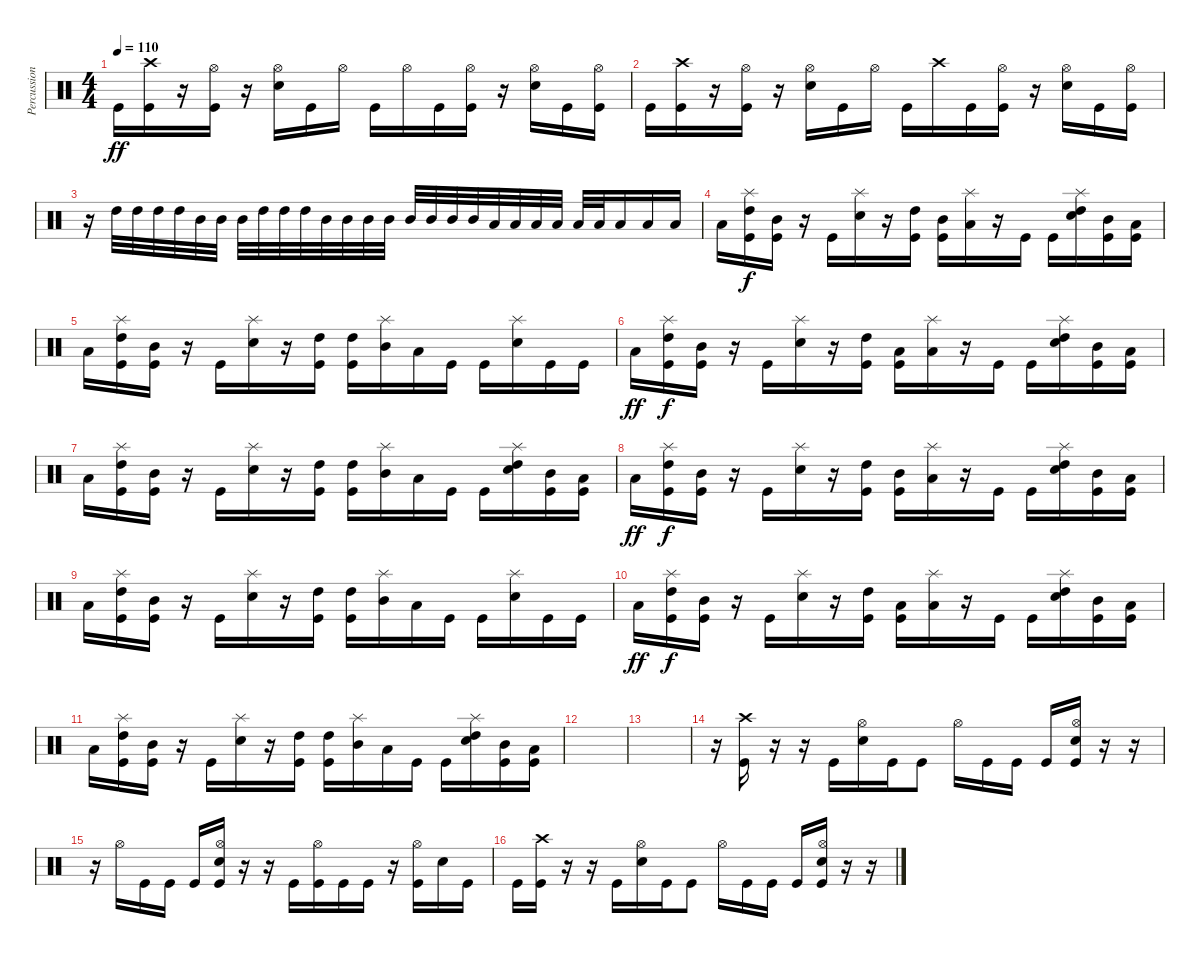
\track ("Percussion" "Percussion") {instrument percussion}
\staff {score}
\articulation defaults
\ts (4 4)
\tempo 110
\clef neutral
\ks c "Kick (hit)".16{dy ff}
("Crash high (hit)" "Kick (hit)").16 r.16 ("Hi-Hat (open)" "Kick (hit)").16 r.16 ("Hi-Hat (open)" "Electric Snare (hit)").16 "Kick (hit)".16 "Hi-Hat (open)".16 "Kick (hit)".16 "Hi-Hat (open)".16 "Kick (hit)".16 ("Hi-Hat (open)" "Kick (hit)").16 r.16 ("Hi-Hat (open)" "Electric Snare (hit)").16 "Kick (hit)".16 ("Hi-Hat (open)" "Kick (hit)").16 |
"Kick (hit)".16 ("Crash high (hit)" "Kick (hit)").16 r.16 ("Hi-Hat (open)" "Kick (hit)").16 r.16 ("Hi-Hat (open)" "Electric Snare (hit)").16 "Kick (hit)".16 "Hi-Hat (open)".16 "Kick (hit)".16 "Crash high (hit)".16 "Kick (hit)".16 ("Hi-Hat (open)" "Kick (hit)").16 r.16 ("Hi-Hat (open)" "Electric Snare (hit)").16 "Kick (hit)".16 ("Hi-Hat (open)" "Kick (hit)").16 |
r.16 "High Tom (hit)".32 "High Tom (hit)".32 "High Tom (hit)".32 "High Tom (hit)".32 "Mid Tom (hit)".32 "Mid Tom (hit)".32 "Mid Tom (hit)".32 "High Tom (hit)".32 "High Tom (hit)".32 "High Tom (hit)".32 "Mid Tom (hit)".32 "Mid Tom (hit)".32 "Mid Tom (hit)".32 "Mid Tom (hit)".32 "Mid Tom (hit)".32 "Mid Tom (hit)".32 "Mid Tom (hit)".32 "Mid Tom (hit)".32 "Low Tom (hit)".32 "Low Tom (hit)".32 "Low Tom (hit)".32 "Low Tom (hit)".32 "Low Tom (hit)".32 "Low Tom (hit)".32 "Low Floor Tom (hit)".16 "Low Floor Tom (hit)".16 "Low Floor Tom (hit)".16 |
"Low Floor Tom (hit)".16 ("Splash (hit)" "High Tom (hit)" "Kick (hit)").16{dy f} ("Mid Tom (hit)" "Kick (hit)").16 r.16 "Kick (hit)".16 ("Splash (hit)" "Electric Snare (hit)").16 r.16 ("High Tom (hit)" "Kick (hit)").16 ("Mid Tom (hit)" "Kick (hit)").16 ("Splash (hit)" "Low Tom (hit)").16 r.16 "Kick (hit)".16 "Kick (hit)".16 ("Splash (hit)" "High Tom (hit)" "Electric Snare (hit)").16 ("Mid Tom (hit)" "Kick (hit)").16 ("Low Tom (hit)" "Kick (hit)").16 |
"Low Floor Tom (hit)".16 ("Splash (hit)" "High Tom (hit)" "Kick (hit)").16 ("Mid Tom (hit)" "Kick (hit)").16 r.16 "Kick (hit)".16 ("Splash (hit)" "Electric Snare (hit)").16 r.16 ("High Tom (hit)" "Kick (hit)").16 ("High Tom (hit)" "Kick (hit)").16 ("Splash (hit)" "Mid Tom (hit)").16 "Low Floor Tom (hit)".16 "Kick (hit)".16 "Kick (hit)".16 ("Splash (hit)" "Electric Snare (hit)").16 "Kick (hit)".16 "Kick (hit)".16 |
"Low Floor Tom (hit)".16{dy ff} ("Splash (hit)" "High Tom (hit)" "Kick (hit)").16{dy f} ("Mid Tom (hit)" "Kick (hit)").16 r.16 "Kick (hit)".16 ("Splash (hit)" "Electric Snare (hit)").16 r.16 ("High Tom (hit)" "Kick (hit)").16 ("Low Tom (hit)" "Kick (hit)").16 ("Splash (hit)" "Low Floor Tom (hit)").16 r.16 "Kick (hit)".16 "Kick (hit)".16 ("Splash (hit)" "High Tom (hit)" "Electric Snare (hit)").16 ("Mid Tom (hit)" "Kick (hit)").16 ("Low Tom (hit)" "Kick (hit)").16 |
"Low Floor Tom (hit)".16 ("Splash (hit)" "High Tom (hit)" "Kick (hit)").16 ("Mid Tom (hit)" "Kick (hit)").16 r.16 "Kick (hit)".16 ("Splash (hit)" "Electric Snare (hit)").16 r.16 ("High Tom (hit)" "Kick (hit)").16 ("High Tom (hit)" "Kick (hit)").16 ("Splash (hit)" "Mid Tom (hit)").16 "Low Floor Tom (hit)".16 "Kick (hit)".16 "Kick (hit)".16 ("Splash (hit)" "High Tom (hit)" "Electric Snare (hit)").16 ("Mid Tom (hit)" "Kick (hit)").16 ("Low Tom (hit)" "Kick (hit)").16 |
"Low Floor Tom (hit)".16{dy ff} ("Splash (hit)" "High Tom (hit)" "Kick (hit)").16{dy f} ("Mid Tom (hit)" "Kick (hit)").16 r.16 "Kick (hit)".16 ("Splash (hit)" "Electric Snare (hit)").16 r.16 ("High Tom (hit)" "Kick (hit)").16 ("Mid Tom (hit)" "Kick (hit)").16 ("Splash (hit)" "Low Tom (hit)").16 r.16 "Kick (hit)".16 "Kick (hit)".16 ("Splash (hit)" "High Tom (hit)" "Electric Snare (hit)").16 ("Mid Tom (hit)" "Kick (hit)").16 ("Low Tom (hit)" "Kick (hit)").16 |
"Low Floor Tom (hit)".16 ("Splash (hit)" "High Tom (hit)" "Kick (hit)").16 ("Mid Tom (hit)" "Kick (hit)").16 r.16 "Kick (hit)".16 ("Splash (hit)" "Electric Snare (hit)").16 r.16 ("High Tom (hit)" "Kick (hit)").16 ("High Tom (hit)" "Kick (hit)").16 ("Splash (hit)" "Mid Tom (hit)").16 "Low Floor Tom (hit)".16 "Kick (hit)".16 "Kick (hit)".16 ("Splash (hit)" "Electric Snare (hit)").16 "Kick (hit)".16 "Kick (hit)".16 |
"Low Floor Tom (hit)".16{dy ff} ("Splash (hit)" "High Tom (hit)" "Kick (hit)").16{dy f} ("Mid Tom (hit)" "Kick (hit)").16 r.16 "Kick (hit)".16 ("Splash (hit)" "Electric Snare (hit)").16 r.16 ("High Tom (hit)" "Kick (hit)").16 ("Low Tom (hit)" "Kick (hit)").16 ("Splash (hit)" "Low Floor Tom (hit)").16 r.16 "Kick (hit)".16 "Kick (hit)".16 ("Splash (hit)" "High Tom (hit)" "Electric Snare (hit)").16 ("Mid Tom (hit)" "Kick (hit)").16 ("Low Tom (hit)" "Kick (hit)").16 |
"Low Floor Tom (hit)".16 ("Splash (hit)" "High Tom (hit)" "Kick (hit)").16 ("Mid Tom (hit)" "Kick (hit)").16 r.16 "Kick (hit)".16 ("Splash (hit)" "Electric Snare (hit)").16 r.16 ("High Tom (hit)" "Kick (hit)").16 ("High Tom (hit)" "Kick (hit)").16 ("Splash (hit)" "Mid Tom (hit)").16 "Low Floor Tom (hit)".16 "Kick (hit)".16 "Kick (hit)".16 ("Splash (hit)" "High Tom (hit)" "Electric Snare (hit)").16 ("Mid Tom (hit)" "Kick (hit)").16 ("Low Tom (hit)" "Kick (hit)").16 |
|
|
r.16 ("Crash high (hit)" "Kick (hit)").16 r.16 r.16 "Kick (hit)".16 ("Hi-Hat (open)" "Electric Snare (hit)").16 "Kick (hit)".16 "Kick (hit)".8 "Hi-Hat (open)".16 "Kick (hit)".16 "Kick (hit)".16 "Kick (hit)".16 ("Hi-Hat (open)" "Electric Snare (hit)" "Kick (hit)").16 r.16 r.16 |
r.16 "Hi-Hat (open)".16 "Kick (hit)".16 "Kick (hit)".16 "Kick (hit)".16 ("Hi-Hat (open)" "Electric Snare (hit)" "Kick (hit)").16 r.16 r.16 "Kick (hit)".16 ("Hi-Hat (open)" "Kick (hit)").16 "Kick (hit)".16 "Kick (hit)".16 r.16 ("Hi-Hat (open)" "Kick (hit)").16 "Electric Snare (hit)".16 "Kick (hit)".16 |
"Kick (hit)".16 ("Crash high (hit)" "Kick (hit)").16 r.16 r.16 "Kick (hit)".16 ("Hi-Hat (open)" "Electric Snare (hit)").16 "Kick (hit)".16 "Kick (hit)".8 "Hi-Hat (open)".16 "Kick (hit)".16 "Kick (hit)".16 "Kick (hit)".16 ("Hi-Hat (open)" "Electric Snare (hit)" "Kick (hit)").16 r.16 r.16
